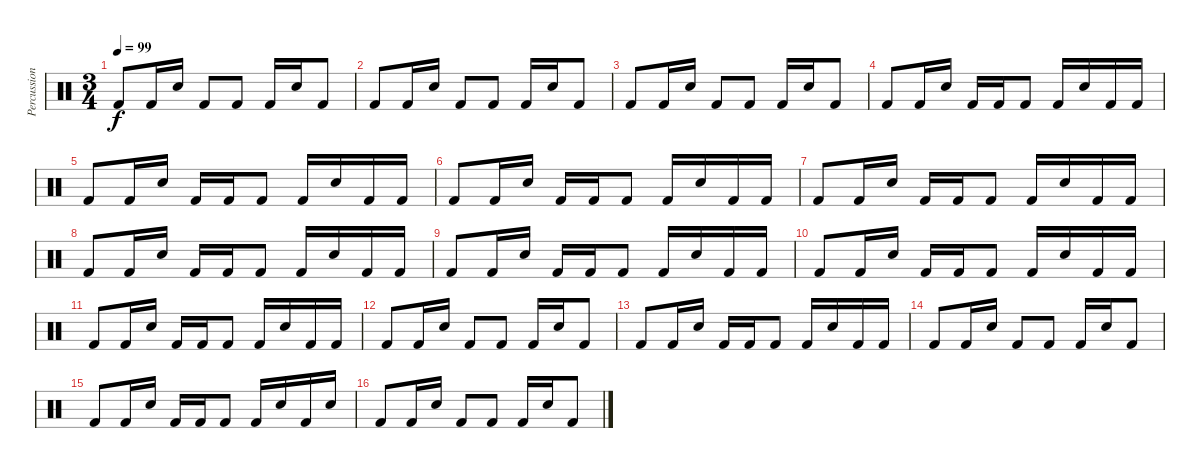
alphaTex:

\track ("Percussion" "Percussion") {instrument percussion}
\staff {score}
\articulation defaults
\ts (3 4)
\tempo 99
\clef neutral
\ks c "Kick (hit) 2".8{dy f} "Kick (hit) 2".16 "Snare (hit) 2".16 "Kick (hit) 2".8 "Kick (hit) 2".8 "Kick (hit) 2".16 "Snare (hit) 2".16 "Kick (hit) 2".8
|
"Kick (hit) 2".8 "Kick (hit) 2".16 "Snare (hit) 2".16 "Kick (hit) 2".8 "Kick (hit) 2".8 "Kick (hit) 2".16 "Snare (hit) 2".16 "Kick (hit) 2".8 |
"Kick (hit) 2".8 "Kick (hit) 2".16 "Snare (hit) 2".16 "Kick (hit) 2".8 "Kick (hit) 2".8 "Kick (hit) 2".16 "Snare (hit) 2".16 "Kick (hit) 2".8 |
"Kick (hit) 2".8 "Kick (hit) 2".16 "Snare (hit) 2".16 "Kick (hit) 2".16 "Kick (hit) 2".16 "Kick (hit) 2".8 "Kick (hit) 2".16 "Snare (hit) 2".16 "Kick (hit) 2".16 "Kick (hit) 2".16 |
"Kick (hit) 2".8 "Kick (hit) 2".16 "Snare (hit) 2".16 "Kick (hit) 2".16 "Kick (hit) 2".16 "Kick (hit) 2".8 "Kick (hit) 2".16 "Snare (hit) 2".16 "Kick (hit) 2".16 "Kick (hit) 2".16 |
"Kick (hit) 2".8 "Kick (hit) 2".16 "Snare (hit) 2".16 "Kick (hit) 2".16 "Kick (hit) 2".16 "Kick (hit) 2".8 "Kick (hit) 2".16 "Snare (hit) 2".16 "Kick (hit) 2".16 "Kick (hit) 2".16 |
"Kick (hit) 2".8 "Kick (hit) 2".16 "Snare (hit) 2".16 "Kick (hit) 2".16 "Kick (hit) 2".16 "Kick (hit) 2".8 "Kick (hit) 2".16 "Snare (hit) 2".16 "Kick (hit) 2".16 "Kick (hit) 2".16 |
"Kick (hit) 2".8 "Kick (hit) 2".16 "Snare (hit) 2".16 "Kick (hit) 2".16 "Kick (hit) 2".16 "Kick (hit) 2".8 "Kick (hit) 2".16 "Snare (hit) 2".16 "Kick (hit) 2".16 "Kick (hit) 2".16 |
"Kick (hit) 2".8 "Kick (hit) 2".16 "Snare (hit) 2".16 "Kick (hit) 2".16 "Kick (hit) 2".16 "Kick (hit) 2".8 "Kick (hit) 2".16 "Snare (hit) 2".16 "Kick (hit) 2".16 "Kick (hit) 2".16 |
"Kick (hit) 2".8 "Kick (hit) 2".16 "Snare (hit) 2".16 "Kick (hit) 2".16 "Kick (hit) 2".16 "Kick (hit) 2".8 "Kick (hit) 2".16 "Snare (hit) 2".16 "Kick (hit) 2".16 "Kick (hit) 2".16 |
"Kick (hit) 2".8 "Kick (hit) 2".16 "Snare (hit) 2".16 "Kick (hit) 2".16 "Kick (hit) 2".16 "Kick (hit) 2".8 "Kick (hit) 2".16 "Snare (hit) 2".16 "Kick (hit) 2".16 "Kick (hit) 2".16 |
"Kick (hit) 2".8 "Kick (hit) 2".16 "Snare (hit) 2".16 "Kick (hit) 2".8 "Kick (hit) 2".8 "Kick (hit) 2".16 "Snare (hit) 2".16 "Kick (hit) 2".8 |
"Kick (hit) 2".8 "Kick (hit) 2".16 "Snare (hit) 2".16 "Kick (hit) 2".16 "Kick (hit) 2".16 "Kick (hit) 2".8 "Kick (hit) 2".16 "Snare (hit) 2".16 "Kick (hit) 2".16 "Kick (hit) 2".16 |
"Kick (hit) 2".8 "Kick (hit) 2".16 "Snare (hit) 2".16 "Kick (hit) 2".8 "Kick (hit) 2".8 "Kick (hit) 2".16 "Snare (hit) 2".16 "Kick (hit) 2".8 |
"Kick (hit) 2".8 "Kick (hit) 2".16 "Snare (hit) 2".16 "Kick (hit) 2".16 "Kick (hit) 2".16 "Kick (hit) 2".8 "Kick (hit) 2".16 "Snare (hit) 2".16 "Kick (hit) 2".16 "Snare (hit) 2".16 |
"Kick (hit) 2".8 "Kick (hit) 2".16 "Snare (hit) 2".16 "Kick (hit) 2".8 "Kick (hit) 2".8 "Kick (hit) 2".16 "Snare (hit) 2".16 "Kick (hit) 2".8
